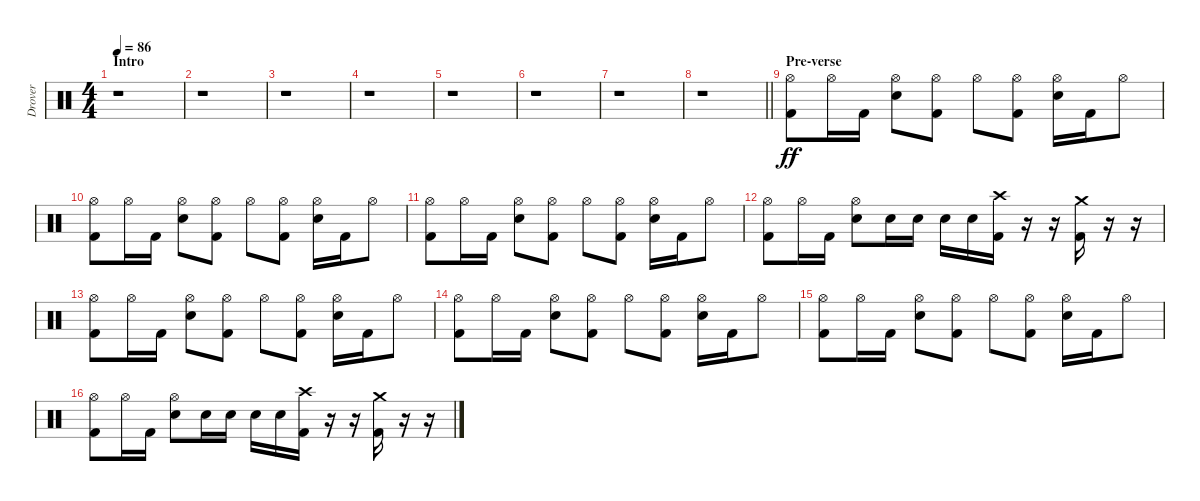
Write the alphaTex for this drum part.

\track ("Drover" "Drover") {instrument percussion}
\staff {score}
\articulation defaults
\ts (4 4)
\section ("" "Intro")
\tempo 86
\clef neutral
\ks c
r.1{dy ff} |
r.1 |
r.1 |
r.1 |
r.1 |
r.1 |
r.1 |
\barLineRight lightlight
r.1 |
\section ("" "Pre-verse")
("Hi-Hat (open)" "Kick (hit) 2").8 "Hi-Hat (open)".16 "Kick (hit) 2".16 ("Hi-Hat (open)" "Electric Snare (hit)").8 ("Hi-Hat (open)" "Kick (hit) 2").8 "Hi-Hat (open)".8 ("Hi-Hat (open)" "Kick (hit) 2").8 ("Hi-Hat (open)" "Electric Snare (hit)").16 "Kick (hit) 2".16 "Hi-Hat (open)".8 |
("Hi-Hat (open)" "Kick (hit) 2").8 "Hi-Hat (open)".16 "Kick (hit) 2".16 ("Hi-Hat (open)" "Electric Snare (hit)").8 ("Hi-Hat (open)" "Kick (hit) 2").8 "Hi-Hat (open)".8 ("Hi-Hat (open)" "Kick (hit) 2").8 ("Hi-Hat (open)" "Electric Snare (hit)").16 "Kick (hit) 2".16 "Hi-Hat (open)".8 |
("Hi-Hat (open)" "Kick (hit) 2").8 "Hi-Hat (open)".16 "Kick (hit) 2".16 ("Hi-Hat (open)" "Electric Snare (hit)").8 ("Hi-Hat (open)" "Kick (hit) 2").8 "Hi-Hat (open)".8 ("Hi-Hat (open)" "Kick (hit) 2").8 ("Hi-Hat (open)" "Electric Snare (hit)").16 "Kick (hit) 2".16 "Hi-Hat (open)".8 |
("Hi-Hat (open)" "Kick (hit) 2").8 "Hi-Hat (open)".16 "Kick (hit) 2".16 ("Hi-Hat (open)" "Electric Snare (hit)").8 "Electric Snare (hit)".16 "Electric Snare (hit)".16 "Electric Snare (hit)".16 "Electric Snare (hit)".16 ("Crash high (hit)" "Kick (hit) 2").16 r.16 r.16 ("Crash medium (hit)" "Kick (hit) 2").16 r.16 r.16 |
("Hi-Hat (open)" "Kick (hit) 2").8 "Hi-Hat (open)".16 "Kick (hit) 2".16 ("Hi-Hat (open)" "Electric Snare (hit)").8 ("Hi-Hat (open)" "Kick (hit) 2").8 "Hi-Hat (open)".8 ("Hi-Hat (open)" "Kick (hit) 2").8 ("Hi-Hat (open)" "Electric Snare (hit)").16 "Kick (hit) 2".16 "Hi-Hat (open)".8 |
("Hi-Hat (open)" "Kick (hit) 2").8 "Hi-Hat (open)".16 "Kick (hit) 2".16 ("Hi-Hat (open)" "Electric Snare (hit)").8 ("Hi-Hat (open)" "Kick (hit) 2").8 "Hi-Hat (open)".8 ("Hi-Hat (open)" "Kick (hit) 2").8 ("Hi-Hat (open)" "Electric Snare (hit)").16 "Kick (hit) 2".16 "Hi-Hat (open)".8 |
("Hi-Hat (open)" "Kick (hit) 2").8 "Hi-Hat (open)".16 "Kick (hit) 2".16 ("Hi-Hat (open)" "Electric Snare (hit)").8 ("Hi-Hat (open)" "Kick (hit) 2").8 "Hi-Hat (open)".8 ("Hi-Hat (open)" "Kick (hit) 2").8 ("Hi-Hat (open)" "Electric Snare (hit)").16 "Kick (hit) 2".16 "Hi-Hat (open)".8 |
("Hi-Hat (open)" "Kick (hit) 2").8 "Hi-Hat (open)".16 "Kick (hit) 2".16 ("Hi-Hat (open)" "Electric Snare (hit)").8 "Electric Snare (hit)".16 "Electric Snare (hit)".16 "Electric Snare (hit)".16 "Electric Snare (hit)".16 ("Crash high (hit)" "Kick (hit) 2").16 r.16 r.16 ("Crash medium (hit)" "Kick (hit) 2").16 r.16 r.16
